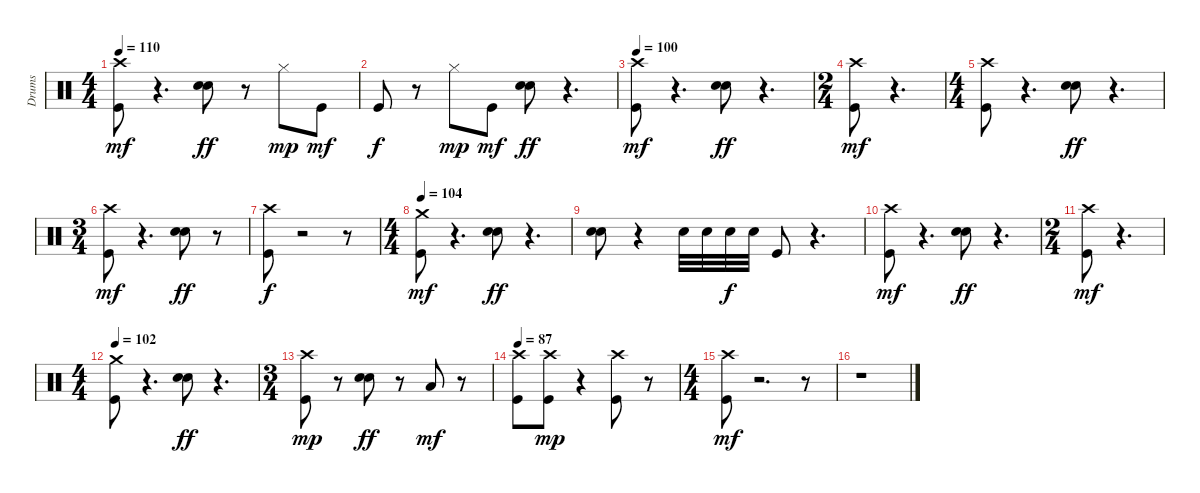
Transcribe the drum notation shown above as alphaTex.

\track ("Drums" "Drums") {instrument percussion}
\staff {score}
\articulation defaults
\ts (4 4)
\tempo 110
\clef neutral
\ks c
("Kick (hit)" "Crash high (hit)").8{dy mf} r.4{d} ("Snare (hit) 2" "Electric Snare (hit)").8{dy ff} r.8 "Hi-Hat (closed)".8{dy mp} "Kick (hit)".8{dy mf} |
"Kick (hit)".8{dy f} r.8 "Hi-Hat (closed)".8{dy mp} "Kick (hit)".8{dy mf} ("Snare (hit) 2" "Electric Snare (hit)").8{dy ff} r.4{d} |
\tempo 100
("Kick (hit)" "Crash high (hit)").8{dy mf} r.4{d} ("Snare (hit) 2" "Electric Snare (hit)").8{dy ff} r.4{d} |
\ts (2 4)
("Kick (hit)" "Crash high (hit)").8{dy mf} r.4{d} |
\ts (4 4)
("Kick (hit)" "Crash high (hit)").8 r.4{d} ("Snare (hit) 2" "Electric Snare (hit)").8{dy ff} r.4{d} |
\ts (3 4)
("Kick (hit)" "Crash high (hit)").8{dy mf} r.4{d} ("Snare (hit) 2" "Electric Snare (hit)").8{dy ff} r.8 |
("Kick (hit)" "Crash high (hit)").8{dy f} r.2 r.8 |
\ts (4 4)
\tempo 104
("Kick (hit)" "Crash medium (hit)").8{dy mf} r.4{d} ("Snare (hit) 2" "Electric Snare (hit)").8{dy ff} r.4{d} |
("Snare (hit) 2" "Electric Snare (hit)").8 r.4 "Electric Snare (hit)".32 "Electric Snare (hit)".32 "Electric Snare (hit)".32{dy f} "Electric Snare (hit)".32 "Kick (hit)".8 r.4{d} |
("Kick (hit)" "Crash high (hit)").8{dy mf} r.4{d} ("Snare (hit) 2" "Electric Snare (hit)").8{dy ff} r.4{d} |
\ts (2 4)
("Kick (hit)" "Crash high (hit)").8{dy mf} r.4{d} |
\ts (4 4)
\tempo 102
("Kick (hit)" "Crash medium (hit)").8 r.4{d} ("Snare (hit) 2" "Electric Snare (hit)").8{dy ff} r.4{d} |
\ts (3 4)
("Kick (hit)" "Crash high (hit)").8{dy mp} r.8 ("Snare (hit) 2" "Electric Snare (hit)").8{dy ff} r.8 "Low Tom (hit)".8{dy mf} r.8 |
\tempo 87
("Kick (hit)" "Crash high (hit)").8 ("Kick (hit)" "Crash high (hit)").8{dy mp} r.4 ("Kick (hit)" "Crash high (hit)").8 r.8 |
\ts (4 4)
("Kick (hit)" "Crash high (hit)").8{dy mf} r.2{d} r.8 |
r.1
